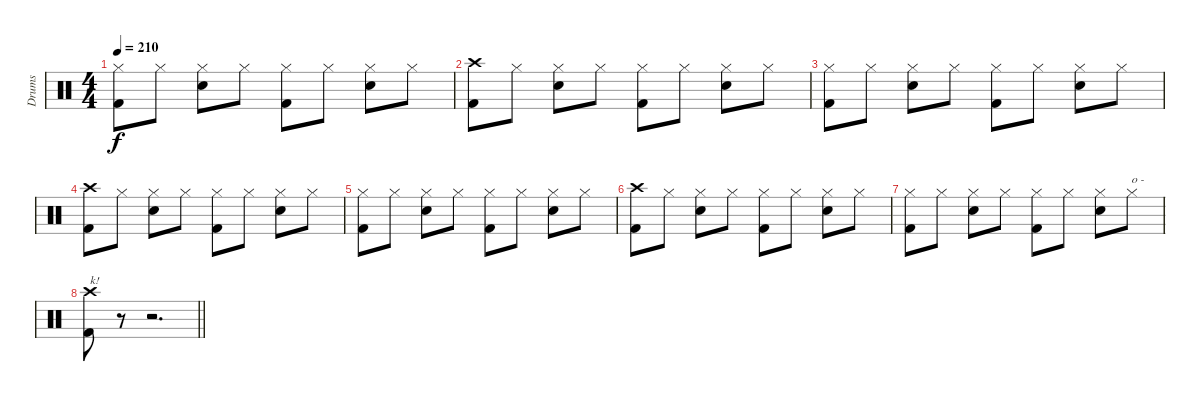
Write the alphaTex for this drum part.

\track ("Drums" "Drums") {instrument percussion}
\staff {score}
\articulation defaults
\ts (4 4)
\tempo 210
\clef neutral
\ks c
("Hi-Hat (closed)" "Kick (hit) 2").8{dy f} "Hi-Hat (closed)".8 ("Hi-Hat (closed)" "Snare (hit) 2").8 "Hi-Hat (closed)".8 ("Hi-Hat (closed)" "Kick (hit) 2").8 "Hi-Hat (closed)".8 ("Hi-Hat (closed)" "Snare (hit) 2").8 "Hi-Hat (closed)".8 |
("Crash high (hit)" "Kick (hit) 2").8 "Hi-Hat (closed)".8 ("Hi-Hat (closed)" "Snare (hit) 2").8 "Hi-Hat (closed)".8 ("Hi-Hat (closed)" "Kick (hit) 2").8 "Hi-Hat (closed)".8 ("Hi-Hat (closed)" "Snare (hit) 2").8 "Hi-Hat (closed)".8 |
("Hi-Hat (closed)" "Kick (hit) 2").8 "Hi-Hat (closed)".8 ("Hi-Hat (closed)" "Snare (hit) 2").8 "Hi-Hat (closed)".8 ("Hi-Hat (closed)" "Kick (hit) 2").8 "Hi-Hat (closed)".8 ("Hi-Hat (closed)" "Snare (hit) 2").8 "Hi-Hat (closed)".8 |
("Crash high (hit)" "Kick (hit) 2").8 "Hi-Hat (closed)".8 ("Hi-Hat (closed)" "Snare (hit) 2").8 "Hi-Hat (closed)".8 ("Hi-Hat (closed)" "Kick (hit) 2").8 "Hi-Hat (closed)".8 ("Hi-Hat (closed)" "Snare (hit) 2").8 "Hi-Hat (closed)".8 |
("Hi-Hat (closed)" "Kick (hit) 2").8 "Hi-Hat (closed)".8 ("Hi-Hat (closed)" "Snare (hit) 2").8 "Hi-Hat (closed)".8 ("Hi-Hat (closed)" "Kick (hit) 2").8 "Hi-Hat (closed)".8 ("Hi-Hat (closed)" "Snare (hit) 2").8 "Hi-Hat (closed)".8 |
("Crash high (hit)" "Kick (hit) 2").8 "Hi-Hat (closed)".8 ("Hi-Hat (closed)" "Snare (hit) 2").8 "Hi-Hat (closed)".8 ("Hi-Hat (closed)" "Kick (hit) 2").8 "Hi-Hat (closed)".8 ("Hi-Hat (closed)" "Snare (hit) 2").8 "Hi-Hat (closed)".8 |
("Hi-Hat (closed)" "Kick (hit) 2").8 "Hi-Hat (closed)".8 ("Hi-Hat (closed)" "Snare (hit) 2").8 "Hi-Hat (closed)".8 ("Hi-Hat (closed)" "Kick (hit) 2").8 "Hi-Hat (closed)".8 ("Hi-Hat (closed)" "Snare (hit) 2").8 "Hi-Hat (closed)".8{txt "o -"} |
\barLineRight lightlight
("Crash high (hit)" "Kick (hit) 2").8{txt "k!"} r.8 r.2{d}
